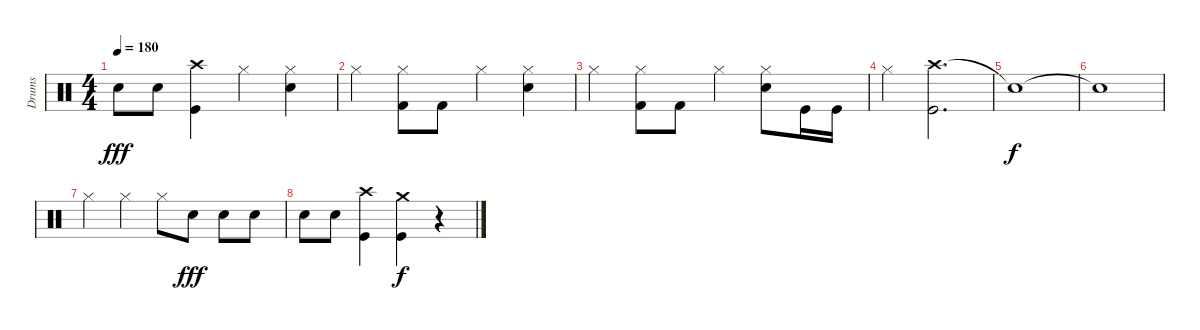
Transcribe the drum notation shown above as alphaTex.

\track ("Drums" "Drums") {instrument percussion}
\staff {score}
\articulation defaults
\ts (4 4)
\tempo 180
\clef neutral
\ks c "Snare (hit) 2".8{dy fff} "Snare (hit) 2".8
("Crash high (hit)" "Kick (hit)").4 "Hi-Hat (closed)".4 ("Hi-Hat (closed)" "Snare (hit) 2").4 |
"Hi-Hat (closed)".4 ("Hi-Hat (closed)" "Kick (hit) 2").8 "Kick (hit) 2".8 "Hi-Hat (closed)".4 ("Hi-Hat (closed)" "Snare (hit) 2").4 |
"Hi-Hat (closed)".4 ("Hi-Hat (closed)" "Kick (hit) 2").8 "Kick (hit) 2".8 "Hi-Hat (closed)".4 ("Hi-Hat (closed)" "Electric Snare (hit)").8 "Kick (hit)".16 "Kick (hit)".16 |
"Hi-Hat (closed)".4 ("Crash high (hit)" "Kick (hit)").2{d} |
"Snare (hit)"{t}.1{dy f} |
"Snare (hit)"{t}.1 |
"Hi-Hat (closed)".4 "Hi-Hat (closed)".4 "Hi-Hat (closed)".8 "Snare (hit) 2".8{dy fff} "Snare (hit) 2".8 "Snare (hit) 2".8 |
"Snare (hit) 2".8 "Snare (hit) 2".8 ("Crash high (hit)" "Kick (hit)").4 ("Crash medium (hit)" "Kick (hit)").4{dy f} r.4
